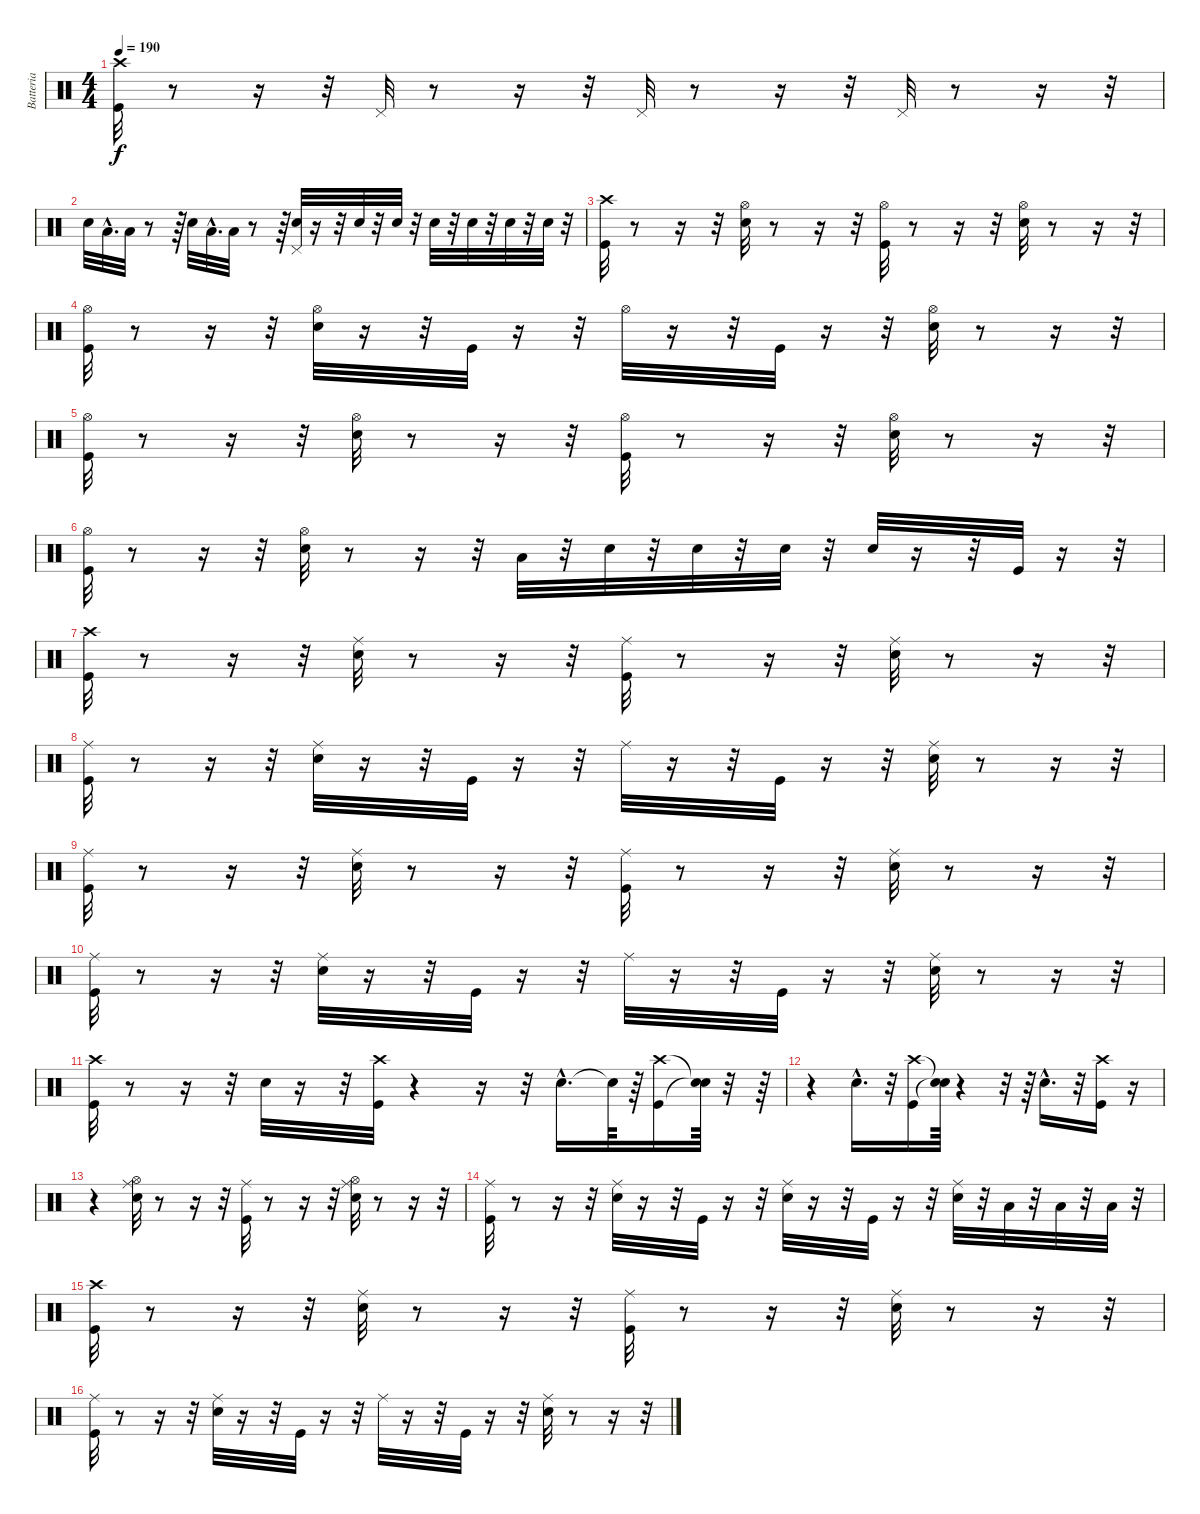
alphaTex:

\track ("Batteria" "Batteria") {instrument percussion}
\staff {score}
\articulation defaults
\ts (4 4)
\tempo 190
\clef neutral
\ks c
("Crash high (hit)" "Kick (hit)").32{dy f} r.8 r.16 r.32 "Pedal Hi-Hat (hit)".32 r.8 r.16 r.32 "Pedal Hi-Hat (hit)".32 r.8 r.16 r.32 "Pedal Hi-Hat (hit)".32 r.8 r.16 r.32 |
"Snare (hit) 2".32 "Low Tom (hit)"{hac}.32{d} "Low Tom (hit)".32 r.8 r.64 "Snare (hit) 2".32 "Low Tom (hit)"{hac}.32{d} "Low Tom (hit)".32 r.8 r.64 ("Snare (hit) 2" "Pedal Hi-Hat (hit)").32 r.16 r.32 "Snare (hit) 2".32 r.32 "Snare (hit) 2".32 r.32 "Snare (hit) 2".32 r.32 "Snare (hit) 2".32 r.32 "Snare (hit) 2".32 r.32 "Snare (hit) 2".32 r.32 |
("Kick (hit)" "Crash high (hit)").32 r.8 r.16 r.32 ("Hi-Hat (open)" "Snare (hit) 2").32 r.8 r.16 r.32 ("Hi-Hat (open)" "Kick (hit)").32 r.8 r.16 r.32 ("Snare (hit) 2" "Hi-Hat (open)").32 r.8 r.16 r.32 |
("Kick (hit)" "Hi-Hat (open)").32 r.8 r.16 r.32 ("Hi-Hat (open)" "Snare (hit) 2").32 r.16 r.32 "Kick (hit)".32 r.16 r.32 "Hi-Hat (open)".32 r.16 r.32 "Kick (hit)".32 r.16 r.32 ("Hi-Hat (open)" "Snare (hit) 2").32 r.8 r.16 r.32 |
("Hi-Hat (open)" "Kick (hit)").32 r.8 r.16 r.32 ("Snare (hit) 2" "Hi-Hat (open)").32 r.8 r.16 r.32 ("Hi-Hat (open)" "Kick (hit)").32 r.8 r.16 r.32 ("Hi-Hat (open)" "Snare (hit) 2").32 r.8 r.16 r.32 |
("Kick (hit)" "Hi-Hat (open)").32 r.8 r.16 r.32 ("Snare (hit) 2" "Hi-Hat (open)").32 r.8 r.16 r.32 "Low Tom (hit)".32 r.32 "Snare (hit) 2".32 r.32 "Snare (hit) 2".32 r.32 "Snare (hit) 2".32 r.32 "Snare (hit) 2".32 r.16 r.32 "Kick (hit)".32 r.16 r.32 |
("Crash high (hit)" "Kick (hit)").32 r.8 r.16 r.32 ("Snare (hit) 2" "Ride (middle)").32 r.8 r.16 r.32 ("Ride (middle)" "Kick (hit)").32 r.8 r.16 r.32 ("Ride (middle)" "Snare (hit) 2").32 r.8 r.16 r.32 |
("Ride (middle)" "Kick (hit)").32 r.8 r.16 r.32 ("Snare (hit) 2" "Ride (middle)").32 r.16 r.32 "Kick (hit)".32 r.16 r.32 "Ride (middle)".32 r.16 r.32 "Kick (hit)".32 r.16 r.32 ("Ride (middle)" "Snare (hit) 2").32 r.8 r.16 r.32 |
("Ride (middle)" "Kick (hit)").32 r.8 r.16 r.32 ("Snare (hit) 2" "Ride (middle)").32 r.8 r.16 r.32 ("Ride (middle)" "Kick (hit)").32 r.8 r.16 r.32 ("Ride (middle)" "Snare (hit) 2").32 r.8 r.16 r.32 |
("Ride (middle)" "Kick (hit)").32 r.8 r.16 r.32 ("Snare (hit) 2" "Ride (middle)").32 r.16 r.32 "Kick (hit)".32 r.16 r.32 "Ride (middle)".32 r.16 r.32 "Kick (hit)".32 r.16 r.32 ("Ride (middle)" "Snare (hit) 2").32 r.8 r.16 r.32 |
("Kick (hit)" "Crash high (hit)").32 r.8 r.16 r.32 "Snare (hit) 2".32 r.16 r.32 ("Kick (hit)" "Crash high (hit)").32 r.4 r.16 r.32 "Snare (hit) 2"{hac}.16{d} "Snare (hit)"{t}.64 r.64 ("Kick (hit)" "Crash high (hit)").16 ("Snare (hit)"{t} "Snare (hit)"{t}).64 r.32 r.64 |
r.4 "Snare (hit) 2"{hac}.16{d} r.32 ("Kick (hit)" "Crash high (hit)").16 ("Snare (hit)"{t} "Snare (hit)"{t}).64 r.4 r.32 r.64 "Snare (hit) 2"{hac}.16{d} r.32 ("Kick (hit)" "Crash high (hit)").16 r.16 |
r.4 ("Hi-Hat (open)" "Ride (middle)" "Snare (hit) 2").32 r.8 r.16 r.32 ("Ride (middle)" "Kick (hit)").32 r.8 r.16 r.32 ("Hi-Hat (open)" "Ride (middle)" "Snare (hit) 2").32 r.8 r.16 r.32 |
("Ride (middle)" "Kick (hit)").32 r.8 r.16 r.32 ("Ride (middle)" "Snare (hit) 2").32 r.16 r.32 "Kick (hit)".32 r.16 r.32 ("Ride (middle)" "Snare (hit) 2").32 r.16 r.32 "Kick (hit)".32 r.16 r.32 ("Ride (middle)" "Snare (hit) 2").32 r.32 "Low Tom (hit)".32 r.32 "Low Tom (hit)".32 r.32 "Low Tom (hit)".32 r.32 |
("Crash high (hit)" "Kick (hit)").32 r.8 r.16 r.32 ("Snare (hit) 2" "Ride (middle)").32 r.8 r.16 r.32 ("Ride (middle)" "Kick (hit)").32 r.8 r.16 r.32 ("Ride (middle)" "Snare (hit) 2").32 r.8 r.16 r.32 |
("Ride (middle)" "Kick (hit)").32 r.8 r.16 r.32 ("Snare (hit) 2" "Ride (middle)").32 r.16 r.32 "Kick (hit)".32 r.16 r.32 "Ride (middle)".32 r.16 r.32 "Kick (hit)".32 r.16 r.32 ("Ride (middle)" "Snare (hit) 2").32 r.8 r.16 r.32
